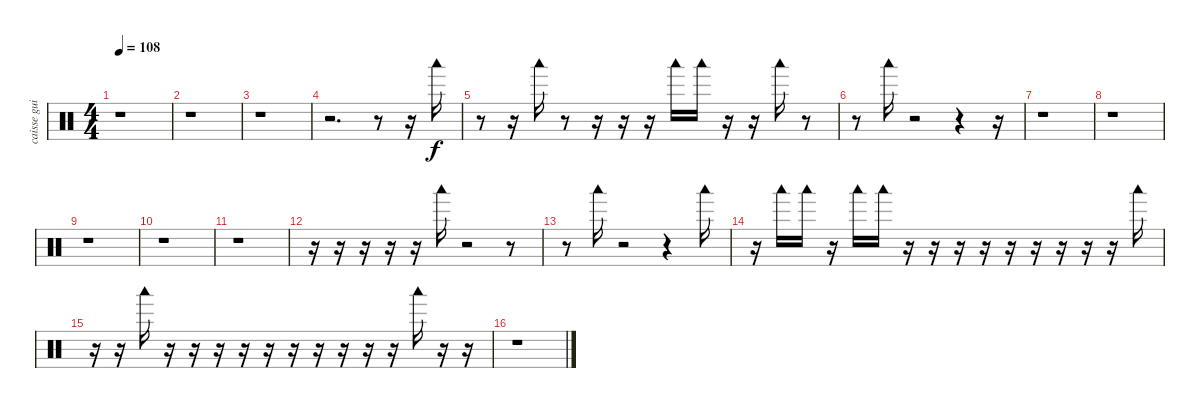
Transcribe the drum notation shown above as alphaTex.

\track ("caisse guitare Di Meola" "caisse gui") {instrument percussion}
\staff {score}
\articulation defaults
\ts (4 4)
\tempo 108
\clef neutral
\ks c
r.1{dy f} |
r.1 |
r.1 |
r.2{d} r.8 r.16 "Woodblock low (hit)".16 |
r.8 r.16 "Woodblock low (hit)".16 r.8 r.16 r.16 r.16 "Woodblock low (hit)".16 "Woodblock low (hit)".16 r.16 r.16 "Woodblock low (hit)".16 r.8 |
r.8 "Woodblock low (hit)".16 r.2 r.4 r.16 |
r.1 |
r.1 |
r.1 |
r.1 |
r.1 |
r.16 r.16 r.16 r.16 r.16 "Woodblock low (hit)".16 r.2 r.8 |
r.8 "Woodblock low (hit)".16 r.2 r.4 "Woodblock low (hit)".16 |
r.16 "Woodblock low (hit)".16 "Woodblock low (hit)".16 r.16 "Woodblock low (hit)".16 "Woodblock low (hit)".16 r.16 r.16 r.16 r.16 r.16 r.16 r.16 r.16 r.16 "Woodblock low (hit)".16 |
r.16 r.16 "Woodblock low (hit)".16 r.16 r.16 r.16 r.16 r.16 r.16 r.16 r.16 r.16 r.16 "Woodblock low (hit)".16 r.16 r.16 |
r.1
